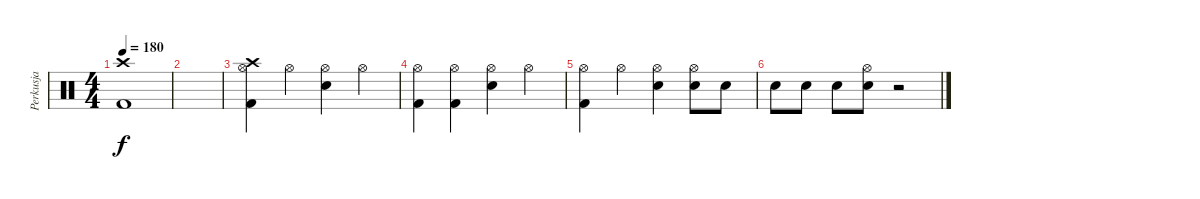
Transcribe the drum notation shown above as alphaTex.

\track ("Perkusja" "Perkusja") {instrument percussion}
\staff {score}
\articulation defaults
\ts (4 4)
\tempo 180
\clef neutral
\ks c
("Crash high (hit)" "Kick (hit) 2").1{dy f} |
|
("Hi-Hat (open)" "Kick (hit) 2" "Crash high (hit)").4 "Hi-Hat (open)".4 ("Hi-Hat (open)" "Snare (hit) 2").4 "Hi-Hat (open)".4 |
("Hi-Hat (open)" "Kick (hit) 2").4 ("Hi-Hat (open)" "Kick (hit) 2").4 ("Hi-Hat (open)" "Snare (hit) 2").4 "Hi-Hat (open)".4 |
("Hi-Hat (open)" "Kick (hit) 2").4 "Hi-Hat (open)".4 ("Hi-Hat (open)" "Snare (hit) 2").4 ("Hi-Hat (open)" "Snare (hit) 2").8 "Snare (hit) 2".8 |
"Snare (hit) 2".8 "Snare (hit) 2".8 "Snare (hit) 2".8 ("Snare (hit) 2" "Hi-Hat (open)").8 r.2
